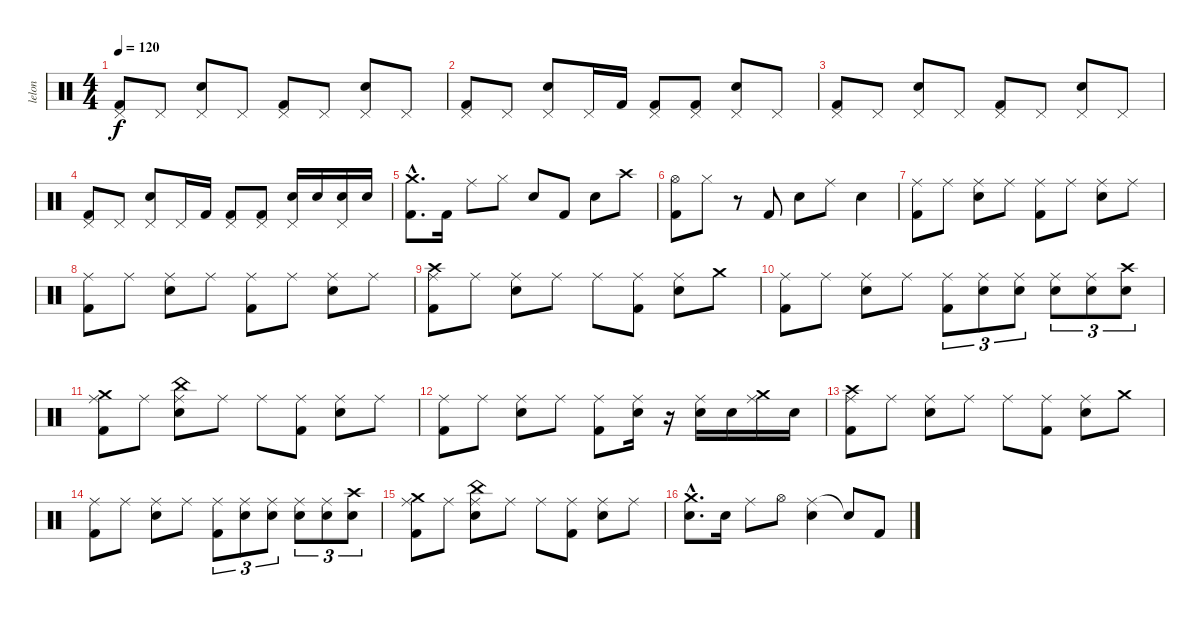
\track ("lelon" "lelon") {instrument percussion}
\staff {score}
\articulation defaults
\ts (4 4)
\tempo 120
\clef neutral
\ks c
("Pedal Hi-Hat (hit)" "Kick (hit) 2").8{dy f} "Pedal Hi-Hat (hit)".8 ("Pedal Hi-Hat (hit)" "Electric Snare (hit)").8 "Pedal Hi-Hat (hit)".8 ("Pedal Hi-Hat (hit)" "Kick (hit) 2").8 "Pedal Hi-Hat (hit)".8 ("Pedal Hi-Hat (hit)" "Electric Snare (hit)").8 "Pedal Hi-Hat (hit)".8 |
("Pedal Hi-Hat (hit)" "Kick (hit) 2").8 "Pedal Hi-Hat (hit)".8 ("Pedal Hi-Hat (hit)" "Electric Snare (hit)").8 "Pedal Hi-Hat (hit)".16 "Kick (hit) 2".16 ("Pedal Hi-Hat (hit)" "Kick (hit) 2").8 ("Pedal Hi-Hat (hit)" "Kick (hit) 2").8 ("Pedal Hi-Hat (hit)" "Electric Snare (hit)").8 "Pedal Hi-Hat (hit)".8 |
("Pedal Hi-Hat (hit)" "Kick (hit) 2").8 "Pedal Hi-Hat (hit)".8 ("Pedal Hi-Hat (hit)" "Electric Snare (hit)").8 "Pedal Hi-Hat (hit)".8 ("Pedal Hi-Hat (hit)" "Kick (hit) 2").8 "Pedal Hi-Hat (hit)".8 ("Pedal Hi-Hat (hit)" "Electric Snare (hit)").8 "Pedal Hi-Hat (hit)".8 |
("Pedal Hi-Hat (hit)" "Kick (hit) 2").8 "Pedal Hi-Hat (hit)".8 ("Pedal Hi-Hat (hit)" "Electric Snare (hit)").8 "Pedal Hi-Hat (hit)".16 "Kick (hit) 2".16 ("Pedal Hi-Hat (hit)" "Kick (hit) 2").8 ("Pedal Hi-Hat (hit)" "Kick (hit) 2").8 ("Pedal Hi-Hat (hit)" "Electric Snare (hit)").16 "Electric Snare (hit)".16 ("Pedal Hi-Hat (hit)" "Electric Snare (hit)").16 "Electric Snare (hit)".16 |
("Crash medium (hit)"{hac} "Kick (hit) 2"{hac}).8{d} "Kick (hit) 2".16 "Ride (middle)".8 "Hi-Hat (closed)".8 "Electric Snare (hit)".8 "Kick (hit) 2".8 "Electric Snare (hit)".8 "Crash high (hit)".8 |
("Hi-Hat (open)" "Kick (hit) 2").8 "Hi-Hat (closed)".8 r.8 "Kick (hit) 2".8 "Electric Snare (hit)".8 "Ride (middle)".8 "Electric Snare (hit)".4 |
("Ride (middle)" "Kick (hit) 2").8 "Ride (middle)".8 ("Ride (middle)" "Electric Snare (hit)").8 "Ride (middle)".8 ("Ride (middle)" "Kick (hit) 2").8 "Ride (middle)".8 ("Ride (middle)" "Electric Snare (hit)").8 "Ride (middle)".8 |
("Ride (middle)" "Kick (hit) 2").8 "Ride (middle)".8 ("Ride (middle)" "Electric Snare (hit)").8 "Ride (middle)".8 ("Ride (middle)" "Kick (hit) 2").8 "Ride (middle)".8 ("Ride (middle)" "Electric Snare (hit)").8 "Ride (middle)".8 |
("Crash high (hit)" "Ride (middle)" "Kick (hit) 2").8 "Ride (middle)".8 ("Ride (middle)" "Electric Snare (hit)").8 "Ride (middle)".8 "Ride (middle)".8 ("Ride (middle)" "Kick (hit) 2").8 ("Ride (middle)" "Electric Snare (hit)").8 "Crash medium (hit)".8 |
("Ride (middle)" "Kick (hit) 2").8 "Ride (middle)".8 ("Ride (middle)" "Electric Snare (hit)").8 "Ride (middle)".8 ("Ride (middle)" "Kick (hit) 2").8{tu (3 2)} ("Ride (middle)" "Electric Snare (hit)").8{tu (3 2)} ("Ride (middle)" "Electric Snare (hit)").8{tu (3 2)} ("Ride (middle)" "Electric Snare (hit)").8{tu (3 2)} ("Ride (middle)" "Electric Snare (hit)").8{tu (3 2)} ("Crash high (hit)" "Electric Snare (hit)").8{tu (3 2)} |
("Crash medium (hit)" "Ride (middle)" "Kick (hit) 2").8 "Ride (middle)".8 ("China (hit)" "Ride (middle)" "Electric Snare (hit)").8 "Ride (middle)".8 "Ride (middle)".8 ("Ride (middle)" "Kick (hit) 2").8 ("Ride (middle)" "Electric Snare (hit)").8 "Ride (middle)".8 |
("Ride (middle)" "Kick (hit) 2").8 "Ride (middle)".8 ("Ride (middle)" "Electric Snare (hit)").8 "Ride (middle)".8 ("Ride (middle)" "Kick (hit) 2").8 ("Ride (middle)" "Electric Snare (hit)").16 r.16 ("Ride (middle)" "Electric Snare (hit)").16 "Electric Snare (hit)".16 ("Crash medium (hit)" "Ride (middle)").16 "Electric Snare (hit)".16 |
("Crash high (hit)" "Ride (middle)" "Kick (hit) 2").8 "Ride (middle)".8 ("Ride (middle)" "Electric Snare (hit)").8 "Ride (middle)".8 "Ride (middle)".8 ("Ride (middle)" "Kick (hit) 2").8 ("Ride (middle)" "Electric Snare (hit)").8 "Crash medium (hit)".8 |
("Ride (middle)" "Kick (hit) 2").8 "Ride (middle)".8 ("Ride (middle)" "Electric Snare (hit)").8 "Ride (middle)".8 ("Ride (middle)" "Kick (hit) 2").8{tu (3 2)} ("Ride (middle)" "Electric Snare (hit)").8{tu (3 2)} ("Ride (middle)" "Electric Snare (hit)").8{tu (3 2)} ("Ride (middle)" "Electric Snare (hit)").8{tu (3 2)} ("Ride (middle)" "Electric Snare (hit)").8{tu (3 2)} ("Crash high (hit)" "Electric Snare (hit)").8{tu (3 2)} |
("Crash medium (hit)" "Ride (middle)" "Kick (hit) 2").8 "Ride (middle)".8 ("China (hit)" "Ride (middle)" "Electric Snare (hit)").8 "Ride (middle)".8 "Ride (middle)".8 ("Ride (middle)" "Kick (hit) 2").8 ("Ride (middle)" "Electric Snare (hit)").8 "Ride (middle)".8 |
("Crash medium (hit)"{hac} "Electric Snare (hit)"{hac}).8{d} "Electric Snare (hit)".16 "Ride (middle)".8 "Hi-Hat (open)".8 ("Ride (middle)" "Electric Snare (hit)").4 "Snare (hit)"{t}.8 "Kick (hit) 2".8
